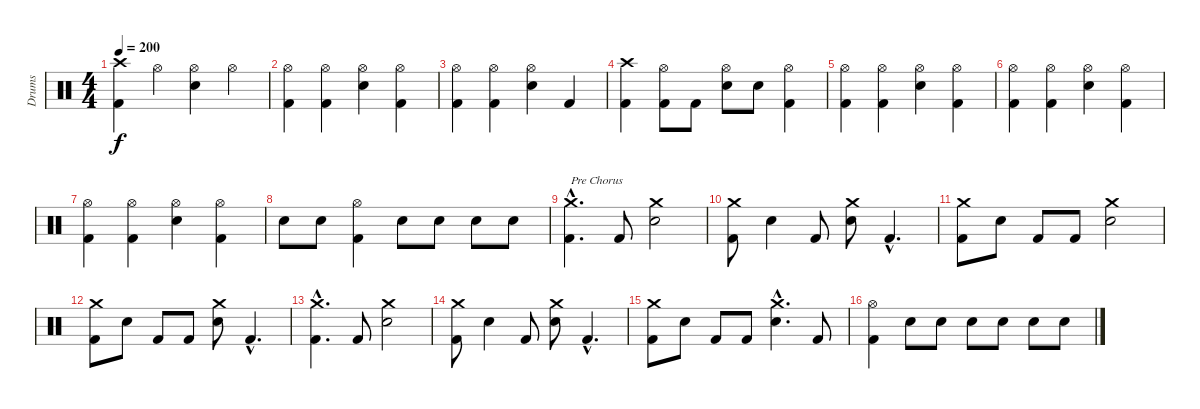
\track ("Drums" "Drums") {instrument percussion}
\staff {score}
\articulation defaults
\ts (4 4)
\tempo 200
\clef neutral
\ks c
("Crash high (hit)" "Kick (hit) 2").4{dy f} "Hi-Hat (open)".4 ("Hi-Hat (open)" "Electric Snare (hit)").4 "Hi-Hat (open)".4 |
("Hi-Hat (open)" "Kick (hit) 2").4 ("Hi-Hat (open)" "Kick (hit) 2").4 ("Hi-Hat (open)" "Electric Snare (hit)").4 ("Hi-Hat (open)" "Kick (hit) 2").4 |
("Hi-Hat (open)" "Kick (hit) 2").4 ("Hi-Hat (open)" "Kick (hit) 2").4 ("Hi-Hat (open)" "Electric Snare (hit)").4 "Kick (hit) 2".4 |
("Crash high (hit)" "Kick (hit) 2").4 ("Hi-Hat (open)" "Kick (hit) 2").8 "Kick (hit) 2".8 ("Hi-Hat (open)" "Electric Snare (hit)").8 "Electric Snare (hit)".8 ("Hi-Hat (open)" "Kick (hit) 2").4 |
("Hi-Hat (open)" "Kick (hit) 2").4 ("Hi-Hat (open)" "Kick (hit) 2").4 ("Hi-Hat (open)" "Electric Snare (hit)").4 ("Hi-Hat (open)" "Kick (hit) 2").4 |
("Hi-Hat (open)" "Kick (hit) 2").4 ("Hi-Hat (open)" "Kick (hit) 2").4 ("Hi-Hat (open)" "Electric Snare (hit)").4 ("Hi-Hat (open)" "Kick (hit) 2").4 |
("Hi-Hat (open)" "Kick (hit) 2").4 ("Hi-Hat (open)" "Kick (hit) 2").4 ("Hi-Hat (open)" "Electric Snare (hit)").4 ("Hi-Hat (open)" "Kick (hit) 2").4 |
"Electric Snare (hit)".8 "Electric Snare (hit)".8 ("Hi-Hat (open)" "Kick (hit) 2").4 "Electric Snare (hit)".8 "Electric Snare (hit)".8 "Electric Snare (hit)".8 "Electric Snare (hit)".8 |
("Crash medium (hit)"{hac} "Kick (hit) 2"{hac}).4{d txt "Pre Chorus"} "Kick (hit) 2".8 ("Crash medium (hit)" "Electric Snare (hit)").2 |
("Crash medium (hit)" "Kick (hit) 2").8 "Electric Snare (hit)".4 "Kick (hit) 2".8 ("Crash medium (hit)" "Electric Snare (hit)").8 "Kick (hit) 2"{hac}.4{d} |
("Crash medium (hit)" "Kick (hit) 2").8 "Electric Snare (hit)".8 "Kick (hit) 2".8 "Kick (hit) 2".8 ("Crash medium (hit)" "Electric Snare (hit)").2 |
("Crash medium (hit)" "Kick (hit) 2").8 "Electric Snare (hit)".8 "Kick (hit) 2".8 "Kick (hit) 2".8 ("Crash medium (hit)" "Electric Snare (hit)").8 "Kick (hit) 2"{hac}.4{d} |
("Crash medium (hit)"{hac} "Kick (hit) 2"{hac}).4{d} "Kick (hit) 2".8 ("Crash medium (hit)" "Electric Snare (hit)").2 |
("Crash medium (hit)" "Kick (hit) 2").8 "Electric Snare (hit)".4 "Kick (hit) 2".8 ("Crash medium (hit)" "Electric Snare (hit)").8 "Kick (hit) 2"{hac}.4{d} |
("Crash medium (hit)" "Kick (hit) 2").8 "Electric Snare (hit)".8 "Kick (hit) 2".8 "Kick (hit) 2".8 ("Crash medium (hit)"{hac} "Electric Snare (hit)"{hac}).4{d} "Kick (hit) 2".8 |
("Hi-Hat (open)" "Kick (hit) 2").4 "Electric Snare (hit)".8 "Electric Snare (hit)".8 "Electric Snare (hit)".8 "Electric Snare (hit)".8 "Electric Snare (hit)".8 "Electric Snare (hit)".8
